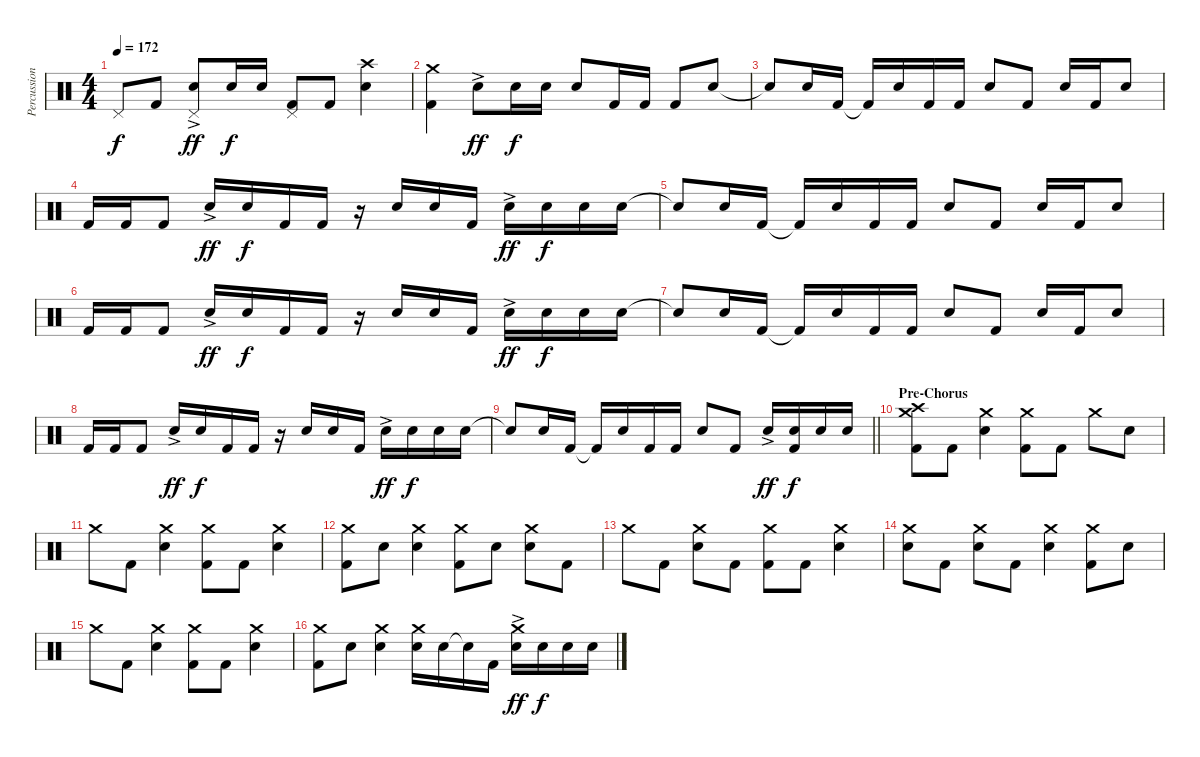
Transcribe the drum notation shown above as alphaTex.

\track ("Percussion" "Percussion") {instrument percussion}
\staff {score}
\articulation defaults
\ts (4 4)
\tempo 172
\clef neutral
\ks aminor "Pedal Hi-Hat (hit)".8{dy f} "Kick (hit) 2".8
("Pedal Hi-Hat (hit)" "Electric Snare (hit)"{ac}).8{dy ff} "Electric Snare (hit)".16{dy f} "Electric Snare (hit)".16 ("Pedal Hi-Hat (hit)" "Kick (hit) 2").8 "Kick (hit) 2".8 ("Crash high (hit)" "Electric Snare (hit)").4 |
("Crash medium (hit)" "Kick (hit) 2").4 "Electric Snare (hit)"{ac}.8{dy ff} "Electric Snare (hit)".16{dy f} "Electric Snare (hit)".16 "Electric Snare (hit)".8 "Kick (hit) 2".16 "Kick (hit) 2".16 "Kick (hit) 2".8 "Electric Snare (hit)".8 |
"Electric Snare (hit)"{t}.8 "Electric Snare (hit)".16 "Kick (hit) 2".16 "Kick (hit) 2"{t}.16 "Electric Snare (hit)".16 "Kick (hit) 2".16 "Kick (hit) 2".16 "Electric Snare (hit)".8 "Kick (hit) 2".8 "Electric Snare (hit)".16 "Kick (hit) 2".16 "Electric Snare (hit)".8 |
"Kick (hit) 2".16 "Kick (hit) 2".16 "Kick (hit) 2".8 "Electric Snare (hit)"{ac}.16{dy ff} "Electric Snare (hit)".16{dy f} "Kick (hit) 2".16 "Kick (hit) 2".16 r.16 "Electric Snare (hit)".16 "Electric Snare (hit)".16 "Kick (hit) 2".16 "Electric Snare (hit)"{ac}.16{dy ff} "Electric Snare (hit)".16{dy f} "Electric Snare (hit)".16 "Electric Snare (hit)".16 |
"Electric Snare (hit)"{t}.8 "Electric Snare (hit)".16 "Kick (hit) 2".16 "Kick (hit) 2"{t}.16 "Electric Snare (hit)".16 "Kick (hit) 2".16 "Kick (hit) 2".16 "Electric Snare (hit)".8 "Kick (hit) 2".8 "Electric Snare (hit)".16 "Kick (hit) 2".16 "Electric Snare (hit)".8 |
"Kick (hit) 2".16 "Kick (hit) 2".16 "Kick (hit) 2".8 "Electric Snare (hit)"{ac}.16{dy ff} "Electric Snare (hit)".16{dy f} "Kick (hit) 2".16 "Kick (hit) 2".16 r.16 "Electric Snare (hit)".16 "Electric Snare (hit)".16 "Kick (hit) 2".16 "Electric Snare (hit)"{ac}.16{dy ff} "Electric Snare (hit)".16{dy f} "Electric Snare (hit)".16 "Electric Snare (hit)".16 |
"Electric Snare (hit)"{t}.8 "Electric Snare (hit)".16 "Kick (hit) 2".16 "Kick (hit) 2"{t}.16 "Electric Snare (hit)".16 "Kick (hit) 2".16 "Kick (hit) 2".16 "Electric Snare (hit)".8 "Kick (hit) 2".8 "Electric Snare (hit)".16 "Kick (hit) 2".16 "Electric Snare (hit)".8 |
"Kick (hit) 2".16 "Kick (hit) 2".16 "Kick (hit) 2".8 "Electric Snare (hit)"{ac}.16{dy ff} "Electric Snare (hit)".16{dy f} "Kick (hit) 2".16 "Kick (hit) 2".16 r.16 "Electric Snare (hit)".16 "Electric Snare (hit)".16 "Kick (hit) 2".16 "Electric Snare (hit)"{ac}.16{dy ff} "Electric Snare (hit)".16{dy f} "Electric Snare (hit)".16 "Electric Snare (hit)".16 |
\barLineRight lightlight "Electric Snare (hit)"{t}.8 "Electric Snare (hit)".16 "Kick (hit) 2".16 "Kick (hit) 2"{t}.16 "Electric Snare (hit)".16 "Kick (hit) 2".16 "Kick (hit) 2".16 "Electric Snare (hit)".8 "Kick (hit) 2".8 "Electric Snare (hit)"{ac}.16{dy ff}
("Electric Snare (hit)" "Kick (hit) 2").16{dy f} "Electric Snare (hit)".16 "Electric Snare (hit)".16 |
\section ("" "Pre-Chorus")
("Crash medium (hit)" "Crash high (hit)" "Kick (hit) 2").8{volume 14} "Kick (hit) 2".8 ("Crash medium (hit)" "Electric Snare (hit)").4 ("Crash medium (hit)" "Kick (hit) 2").8 "Kick (hit) 2".8 "Crash medium (hit)".8 "Electric Snare (hit)".8 |
"Crash medium (hit)".8 "Kick (hit) 2".8 ("Crash medium (hit)" "Electric Snare (hit)").4 ("Crash medium (hit)" "Kick (hit) 2").8 "Kick (hit) 2".8 ("Crash medium (hit)" "Electric Snare (hit)").4 |
("Crash medium (hit)" "Kick (hit) 2").8 "Electric Snare (hit)".8 ("Crash medium (hit)" "Electric Snare (hit)").4 ("Crash medium (hit)" "Kick (hit) 2").8 "Electric Snare (hit)".8 ("Crash medium (hit)" "Electric Snare (hit)").8 "Kick (hit) 2".8 |
"Crash medium (hit)".8 "Kick (hit) 2".8 ("Crash medium (hit)" "Electric Snare (hit)").8 "Kick (hit) 2".8 ("Crash medium (hit)" "Kick (hit) 2").8 "Kick (hit) 2".8 ("Crash medium (hit)" "Electric Snare (hit)").4 |
("Crash medium (hit)" "Electric Snare (hit)").8 "Kick (hit) 2".8 ("Crash medium (hit)" "Electric Snare (hit)").8 "Kick (hit) 2".8 ("Crash medium (hit)" "Electric Snare (hit)").4 ("Crash medium (hit)" "Kick (hit) 2").8 "Electric Snare (hit)".8 |
"Crash medium (hit)".8 "Kick (hit) 2".8 ("Crash medium (hit)" "Electric Snare (hit)").4 ("Crash medium (hit)" "Kick (hit) 2").8 "Kick (hit) 2".8 ("Crash medium (hit)" "Electric Snare (hit)").4 |
("Crash medium (hit)" "Kick (hit) 2").8 "Electric Snare (hit)".8 ("Crash medium (hit)" "Electric Snare (hit)").4 ("Crash medium (hit)" "Electric Snare (hit)").16 "Electric Snare (hit)".16 "Electric Snare (hit)"{t}.16 "Kick (hit) 2".16 ("Crash medium (hit)" "Electric Snare (hit)"{ac}).16{dy ff} "Electric Snare (hit)".16{dy f} "Electric Snare (hit)".16 "Electric Snare (hit)".16
